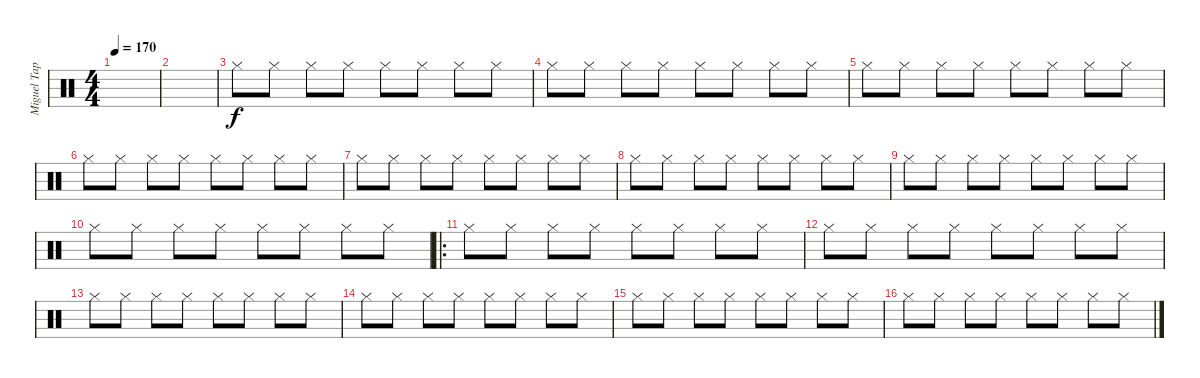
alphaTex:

\track ("Miguel Tapia" "Miguel Tap") {instrument percussion}
\staff {score}
\articulation defaults
\ts (4 4)
\tempo 170
\clef neutral
\ks c
|
|
"Hi-Hat (closed)".8 "Hi-Hat (closed)".8 "Hi-Hat (closed)".8 "Hi-Hat (closed)".8 "Hi-Hat (closed)".8 "Hi-Hat (closed)".8 "Hi-Hat (closed)".8 "Hi-Hat (closed)".8 |
"Hi-Hat (closed)".8 "Hi-Hat (closed)".8 "Hi-Hat (closed)".8 "Hi-Hat (closed)".8 "Hi-Hat (closed)".8 "Hi-Hat (closed)".8 "Hi-Hat (closed)".8 "Hi-Hat (closed)".8 |
"Hi-Hat (closed)".8 "Hi-Hat (closed)".8 "Hi-Hat (closed)".8 "Hi-Hat (closed)".8 "Hi-Hat (closed)".8 "Hi-Hat (closed)".8 "Hi-Hat (closed)".8 "Hi-Hat (closed)".8 |
"Hi-Hat (closed)".8 "Hi-Hat (closed)".8 "Hi-Hat (closed)".8 "Hi-Hat (closed)".8 "Hi-Hat (closed)".8 "Hi-Hat (closed)".8 "Hi-Hat (closed)".8 "Hi-Hat (closed)".8 |
"Hi-Hat (closed)".8 "Hi-Hat (closed)".8 "Hi-Hat (closed)".8 "Hi-Hat (closed)".8 "Hi-Hat (closed)".8 "Hi-Hat (closed)".8 "Hi-Hat (closed)".8 "Hi-Hat (closed)".8 |
"Hi-Hat (closed)".8 "Hi-Hat (closed)".8 "Hi-Hat (closed)".8 "Hi-Hat (closed)".8 "Hi-Hat (closed)".8 "Hi-Hat (closed)".8 "Hi-Hat (closed)".8 "Hi-Hat (closed)".8 |
"Hi-Hat (closed)".8 "Hi-Hat (closed)".8 "Hi-Hat (closed)".8 "Hi-Hat (closed)".8 "Hi-Hat (closed)".8 "Hi-Hat (closed)".8 "Hi-Hat (closed)".8 "Hi-Hat (closed)".8 |
"Hi-Hat (closed)".8 "Hi-Hat (closed)".8 "Hi-Hat (closed)".8 "Hi-Hat (closed)".8 "Hi-Hat (closed)".8 "Hi-Hat (closed)".8 "Hi-Hat (closed)".8 "Hi-Hat (closed)".8 |
\ro "Hi-Hat (closed)".8 "Hi-Hat (closed)".8 "Hi-Hat (closed)".8 "Hi-Hat (closed)".8 "Hi-Hat (closed)".8 "Hi-Hat (closed)".8 "Hi-Hat (closed)".8 "Hi-Hat (closed)".8
|
"Hi-Hat (closed)".8 "Hi-Hat (closed)".8 "Hi-Hat (closed)".8 "Hi-Hat (closed)".8 "Hi-Hat (closed)".8 "Hi-Hat (closed)".8 "Hi-Hat (closed)".8 "Hi-Hat (closed)".8 |
"Hi-Hat (closed)".8 "Hi-Hat (closed)".8 "Hi-Hat (closed)".8 "Hi-Hat (closed)".8 "Hi-Hat (closed)".8 "Hi-Hat (closed)".8 "Hi-Hat (closed)".8 "Hi-Hat (closed)".8 |
"Hi-Hat (closed)".8 "Hi-Hat (closed)".8 "Hi-Hat (closed)".8 "Hi-Hat (closed)".8 "Hi-Hat (closed)".8 "Hi-Hat (closed)".8 "Hi-Hat (closed)".8 "Hi-Hat (closed)".8 |
"Hi-Hat (closed)".8 "Hi-Hat (closed)".8 "Hi-Hat (closed)".8 "Hi-Hat (closed)".8 "Hi-Hat (closed)".8 "Hi-Hat (closed)".8 "Hi-Hat (closed)".8 "Hi-Hat (closed)".8 |
"Hi-Hat (closed)".8 "Hi-Hat (closed)".8 "Hi-Hat (closed)".8 "Hi-Hat (closed)".8 "Hi-Hat (closed)".8 "Hi-Hat (closed)".8 "Hi-Hat (closed)".8 "Hi-Hat (closed)".8
